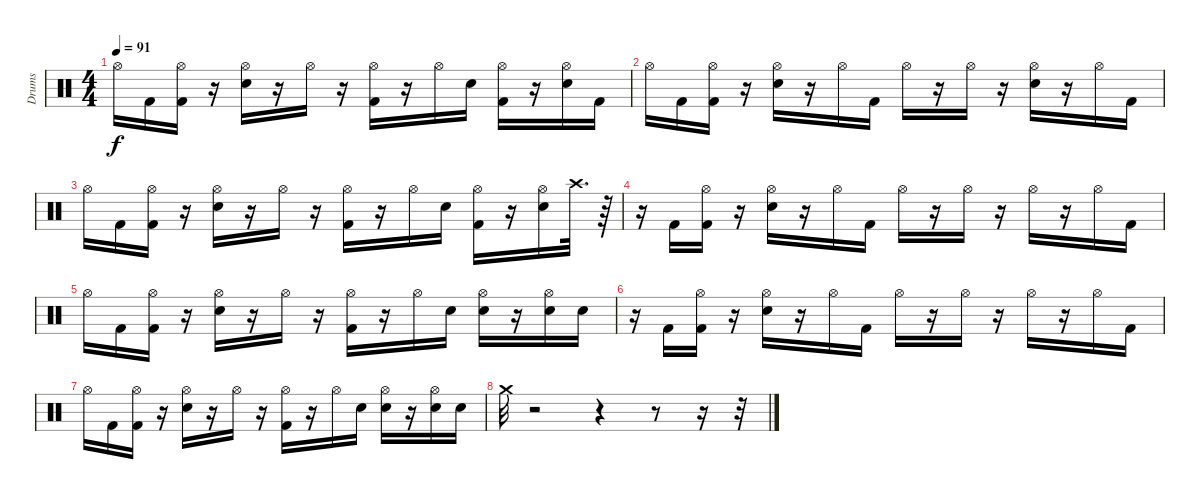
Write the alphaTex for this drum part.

\track ("Drums" "Drums") {instrument percussion}
\staff {score}
\articulation defaults
\ts (4 4)
\tempo 91
\clef neutral
\ks c "Hi-Hat (open)".16{dy f} "Kick (hit) 2".16
("Hi-Hat (open)" "Kick (hit) 2").16 r.16 ("Hi-Hat (open)" "Snare (hit) 2").16 r.16 "Hi-Hat (open)".16 r.16 ("Kick (hit) 2" "Hi-Hat (open)").16 r.16 "Hi-Hat (open)".16 "Snare (hit) 2".16 ("Kick (hit) 2" "Hi-Hat (open)").16 r.16 ("Snare (hit) 2" "Hi-Hat (open)").16 "Kick (hit) 2".16 |
"Hi-Hat (open)".16 "Kick (hit) 2".16 ("Hi-Hat (open)" "Kick (hit) 2").16 r.16 ("Hi-Hat (open)" "Snare (hit) 2").16 r.16 "Hi-Hat (open)".16 "Kick (hit) 2".16 "Hi-Hat (open)".16 r.16 "Hi-Hat (open)".16 r.16 ("Snare (hit) 2" "Hi-Hat (open)").16 r.16 "Hi-Hat (open)".16 "Kick (hit) 2".16 |
"Hi-Hat (open)".16 "Kick (hit) 2".16 ("Hi-Hat (open)" "Kick (hit) 2").16 r.16 ("Hi-Hat (open)" "Snare (hit) 2").16 r.16 "Hi-Hat (open)".16 r.16 ("Kick (hit) 2" "Hi-Hat (open)").16 r.16 "Hi-Hat (open)".16 "Snare (hit) 2".16 ("Kick (hit) 2" "Hi-Hat (open)").16 r.16 ("Snare (hit) 2" "Hi-Hat (open)").16 "Crash high (hit)".32{d} r.64 |
r.16 "Kick (hit) 2".16 ("Hi-Hat (open)" "Kick (hit) 2").16 r.16 ("Hi-Hat (open)" "Snare (hit) 2").16 r.16 "Hi-Hat (open)".16 "Kick (hit) 2".16 "Hi-Hat (open)".16 r.16 "Hi-Hat (open)".16 r.16 "Hi-Hat (open)".16 r.16 "Hi-Hat (open)".16 "Kick (hit) 2".16 |
"Hi-Hat (open)".16 "Kick (hit) 2".16 ("Hi-Hat (open)" "Kick (hit) 2").16 r.16 ("Hi-Hat (open)" "Snare (hit) 2").16 r.16 "Hi-Hat (open)".16 r.16 ("Kick (hit) 2" "Hi-Hat (open)").16 r.16 "Hi-Hat (open)".16 "Snare (hit) 2".16 ("Snare (hit) 2" "Hi-Hat (open)").16 r.16 ("Snare (hit) 2" "Hi-Hat (open)").16 "Snare (hit) 2".16 |
r.16 "Kick (hit) 2".16 ("Hi-Hat (open)" "Kick (hit) 2").16 r.16 ("Hi-Hat (open)" "Snare (hit) 2").16 r.16 "Hi-Hat (open)".16 "Kick (hit) 2".16 "Hi-Hat (open)".16 r.16 "Hi-Hat (open)".16 r.16 "Hi-Hat (open)".16 r.16 "Hi-Hat (open)".16 "Kick (hit) 2".16 |
"Hi-Hat (open)".16 "Kick (hit) 2".16 ("Hi-Hat (open)" "Kick (hit) 2").16 r.16 ("Hi-Hat (open)" "Snare (hit) 2").16 r.16 "Hi-Hat (open)".16 r.16 ("Kick (hit) 2" "Hi-Hat (open)").16 r.16 "Hi-Hat (open)".16 "Snare (hit) 2".16 ("Snare (hit) 2" "Hi-Hat (open)").16 r.16 ("Snare (hit) 2" "Hi-Hat (open)").16 "Snare (hit) 2".16 |
"Crash medium (hit)".32 r.2 r.4 r.8 r.16 r.32
